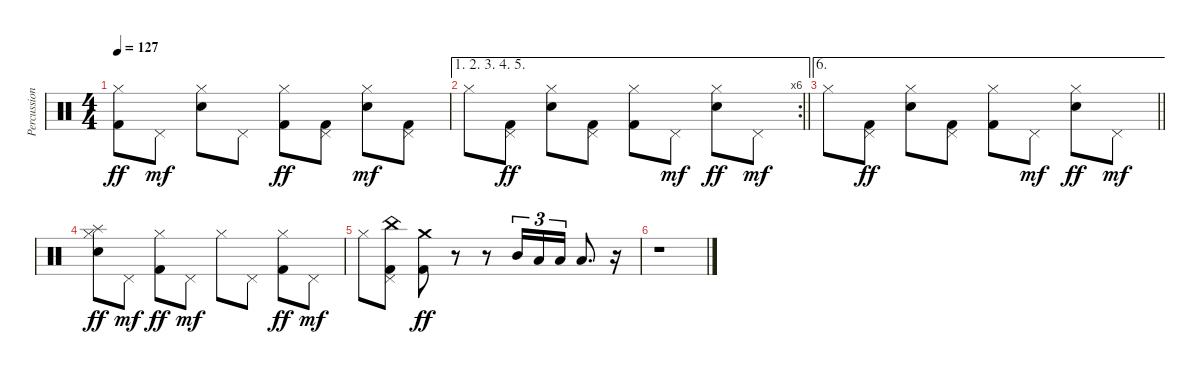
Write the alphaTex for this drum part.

\track ("Percussion" "Percussion") {instrument percussion}
\staff {score}
\articulation defaults
\ts (4 4)
\tempo 127
\clef neutral
\ks c
("Hi-Hat (closed)" "Kick (hit) 2").8{dy ff} "Pedal Hi-Hat (hit)".8{dy mf} ("Hi-Hat (closed)" "Snare (hit) 2").8 "Pedal Hi-Hat (hit)".8 ("Hi-Hat (closed)" "Kick (hit) 2").8{dy ff} ("Pedal Hi-Hat (hit)" "Kick (hit) 2").8 ("Hi-Hat (closed)" "Snare (hit) 2").8{dy mf} ("Pedal Hi-Hat (hit)" "Kick (hit) 2").8 |
\ae (1 2 3 4 5)
\rc 6
\barLineRight lightlight "Hi-Hat (closed)".8
("Pedal Hi-Hat (hit)" "Kick (hit) 2").8{dy ff} ("Hi-Hat (closed)" "Snare (hit) 2").8 ("Pedal Hi-Hat (hit)" "Kick (hit) 2").8 ("Hi-Hat (closed)" "Kick (hit) 2").8 "Pedal Hi-Hat (hit)".8{dy mf} ("Hi-Hat (closed)" "Snare (hit) 2").8{dy ff} "Pedal Hi-Hat (hit)".8{dy mf} |
\ae 6
\barLineRight lightlight "Hi-Hat (closed)".8
("Pedal Hi-Hat (hit)" "Kick (hit) 2").8{dy ff} ("Hi-Hat (closed)" "Snare (hit) 2").8 ("Pedal Hi-Hat (hit)" "Kick (hit) 2").8 ("Hi-Hat (closed)" "Kick (hit) 2").8 "Pedal Hi-Hat (hit)".8{dy mf} ("Hi-Hat (closed)" "Snare (hit) 2").8{dy ff} "Pedal Hi-Hat (hit)".8{dy mf} |
("Hi-Hat (closed)" "Splash (hit)" "Electric Snare (hit)").8{dy ff} "Pedal Hi-Hat (hit)".8{dy mf} ("Hi-Hat (closed)" "Kick (hit) 2").8{dy ff} "Pedal Hi-Hat (hit)".8{dy mf} "Hi-Hat (closed)".8 "Pedal Hi-Hat (hit)".8 ("Hi-Hat (closed)" "Kick (hit) 2").8{dy ff} "Pedal Hi-Hat (hit)".8{dy mf} |
"Hi-Hat (closed)".8 ("Pedal Hi-Hat (hit)" "China (hit)" "Kick (hit) 2").8 ("Crash medium (hit)" "Kick (hit) 2").8{dy ff} r.8 r.8 "Mid Tom (hit)".16{tu (3 2)} "Low Tom (hit)".16{tu (3 2)} "Low Floor Tom (hit)".16{tu (3 2)} "Low Floor Tom (hit)".8{d} r.16 |
r.1
